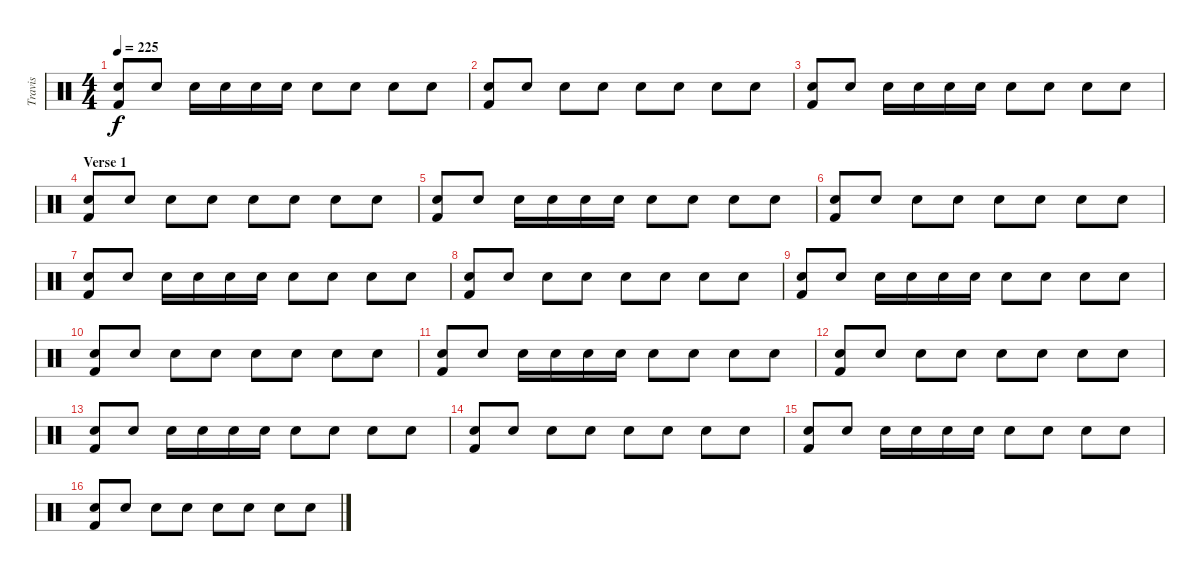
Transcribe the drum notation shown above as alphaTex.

\track ("Travis" "Travis") {instrument percussion}
\staff {score}
\articulation defaults
\ts (4 4)
\tempo 225
\clef neutral
\ks c
("Snare (hit) 2" "Kick (hit) 2").8{dy f} "Snare (hit) 2".8 "Snare (hit) 2".16 "Snare (hit) 2".16 "Snare (hit) 2".16 "Snare (hit) 2".16 "Electric Snare (hit)".8 "Electric Snare (hit)".8 "Snare (hit) 2".8 "Snare (hit) 2".8 |
("Snare (hit) 2" "Kick (hit) 2").8 "Snare (hit) 2".8 "Snare (hit) 2".8 "Electric Snare (hit)".8 "Snare (hit) 2".8 "Snare (hit) 2".8 "Electric Snare (hit)".8 "Snare (hit) 2".8 |
("Snare (hit) 2" "Kick (hit) 2").8 "Snare (hit) 2".8 "Snare (hit) 2".16 "Snare (hit) 2".16 "Snare (hit) 2".16 "Snare (hit) 2".16 "Electric Snare (hit)".8 "Electric Snare (hit)".8 "Snare (hit) 2".8 "Snare (hit) 2".8 |
\section ("" "Verse 1")
("Snare (hit) 2" "Kick (hit) 2").8 "Snare (hit) 2".8 "Snare (hit) 2".8 "Electric Snare (hit)".8 "Snare (hit) 2".8 "Snare (hit) 2".8 "Electric Snare (hit)".8 "Snare (hit) 2".8 |
("Snare (hit) 2" "Kick (hit) 2").8 "Snare (hit) 2".8 "Snare (hit) 2".16 "Snare (hit) 2".16 "Snare (hit) 2".16 "Snare (hit) 2".16 "Electric Snare (hit)".8 "Electric Snare (hit)".8 "Snare (hit) 2".8 "Snare (hit) 2".8 |
("Snare (hit) 2" "Kick (hit) 2").8 "Snare (hit) 2".8 "Snare (hit) 2".8 "Electric Snare (hit)".8 "Snare (hit) 2".8 "Snare (hit) 2".8 "Electric Snare (hit)".8 "Snare (hit) 2".8 |
("Snare (hit) 2" "Kick (hit) 2").8 "Snare (hit) 2".8 "Snare (hit) 2".16 "Snare (hit) 2".16 "Snare (hit) 2".16 "Snare (hit) 2".16 "Electric Snare (hit)".8 "Electric Snare (hit)".8 "Snare (hit) 2".8 "Snare (hit) 2".8 |
("Snare (hit) 2" "Kick (hit) 2").8 "Snare (hit) 2".8 "Snare (hit) 2".8 "Electric Snare (hit)".8 "Snare (hit) 2".8 "Snare (hit) 2".8 "Electric Snare (hit)".8 "Snare (hit) 2".8 |
("Snare (hit) 2" "Kick (hit) 2").8 "Snare (hit) 2".8 "Snare (hit) 2".16 "Snare (hit) 2".16 "Snare (hit) 2".16 "Snare (hit) 2".16 "Electric Snare (hit)".8 "Electric Snare (hit)".8 "Snare (hit) 2".8 "Snare (hit) 2".8 |
("Snare (hit) 2" "Kick (hit) 2").8 "Snare (hit) 2".8 "Snare (hit) 2".8 "Electric Snare (hit)".8 "Snare (hit) 2".8 "Snare (hit) 2".8 "Electric Snare (hit)".8 "Snare (hit) 2".8 |
("Snare (hit) 2" "Kick (hit) 2").8 "Snare (hit) 2".8 "Snare (hit) 2".16 "Snare (hit) 2".16 "Snare (hit) 2".16 "Snare (hit) 2".16 "Electric Snare (hit)".8 "Electric Snare (hit)".8 "Snare (hit) 2".8 "Snare (hit) 2".8 |
("Snare (hit) 2" "Kick (hit) 2").8 "Snare (hit) 2".8 "Snare (hit) 2".8 "Electric Snare (hit)".8 "Snare (hit) 2".8 "Snare (hit) 2".8 "Electric Snare (hit)".8 "Snare (hit) 2".8 |
("Snare (hit) 2" "Kick (hit) 2").8 "Snare (hit) 2".8 "Snare (hit) 2".16 "Snare (hit) 2".16 "Snare (hit) 2".16 "Snare (hit) 2".16 "Electric Snare (hit)".8 "Electric Snare (hit)".8 "Snare (hit) 2".8 "Snare (hit) 2".8 |
("Snare (hit) 2" "Kick (hit) 2").8 "Snare (hit) 2".8 "Snare (hit) 2".8 "Electric Snare (hit)".8 "Snare (hit) 2".8 "Snare (hit) 2".8 "Electric Snare (hit)".8 "Snare (hit) 2".8 |
("Snare (hit) 2" "Kick (hit) 2").8 "Snare (hit) 2".8 "Snare (hit) 2".16 "Snare (hit) 2".16 "Snare (hit) 2".16 "Snare (hit) 2".16 "Electric Snare (hit)".8 "Electric Snare (hit)".8 "Snare (hit) 2".8 "Snare (hit) 2".8 |
("Snare (hit) 2" "Kick (hit) 2").8 "Snare (hit) 2".8 "Snare (hit) 2".8 "Electric Snare (hit)".8 "Snare (hit) 2".8 "Snare (hit) 2".8 "Electric Snare (hit)".8 "Snare (hit) 2".8
